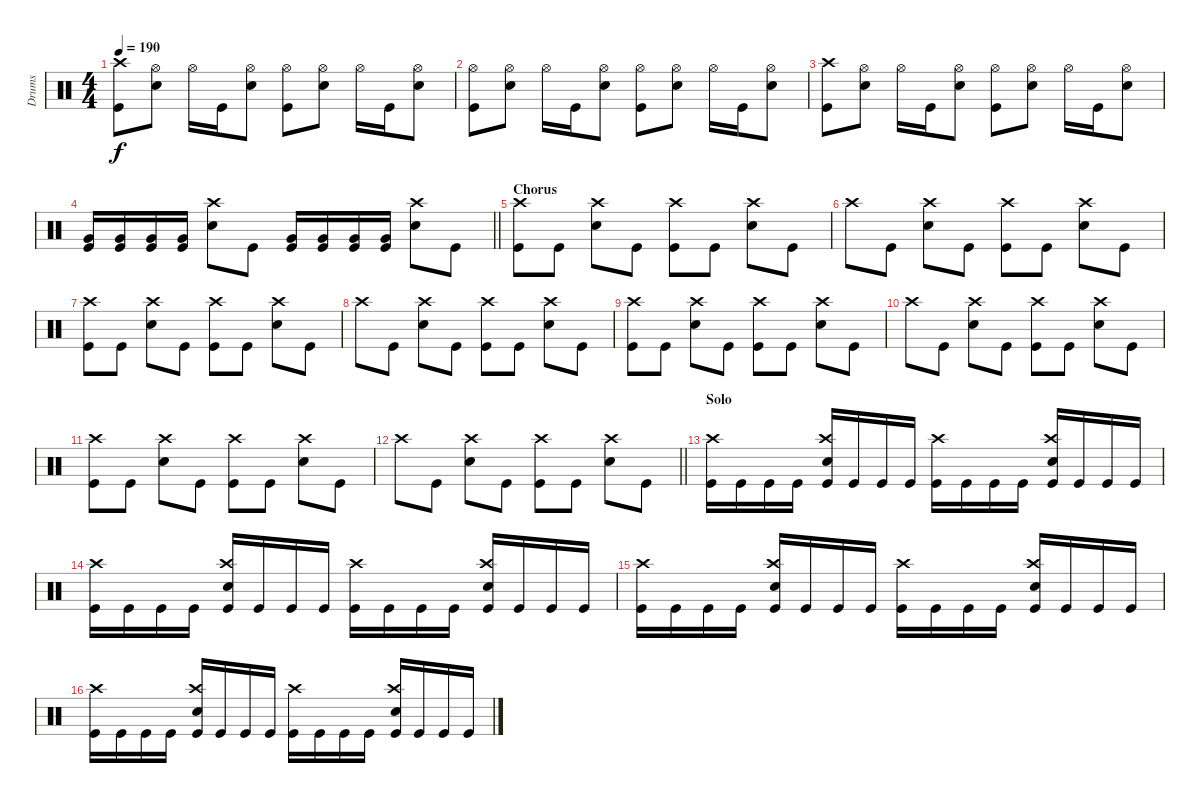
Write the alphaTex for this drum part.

\track ("Drums" "Drums") {instrument percussion}
\staff {score}
\articulation defaults
\ts (4 4)
\tempo 190
\clef neutral
\ks c
("Kick (hit)" "Crash high (hit)").8{dy f} ("Snare (hit) 2" "Hi-Hat (open)").8 "Hi-Hat (open)".16 "Kick (hit)".16 ("Snare (hit) 2" "Hi-Hat (open)").8 ("Kick (hit)" "Hi-Hat (open)").8 ("Snare (hit) 2" "Hi-Hat (open)").8 "Hi-Hat (open)".16 "Kick (hit)".16 ("Snare (hit) 2" "Hi-Hat (open)").8 |
("Kick (hit)" "Hi-Hat (open)").8 ("Snare (hit) 2" "Hi-Hat (open)").8 "Hi-Hat (open)".16 "Kick (hit)".16 ("Snare (hit) 2" "Hi-Hat (open)").8 ("Kick (hit)" "Hi-Hat (open)").8 ("Snare (hit) 2" "Hi-Hat (open)").8 "Hi-Hat (open)".16 "Kick (hit)".16 ("Snare (hit) 2" "Hi-Hat (open)").8 |
("Kick (hit)" "Crash high (hit)").8 ("Snare (hit) 2" "Hi-Hat (open)").8 "Hi-Hat (open)".16 "Kick (hit)".16 ("Snare (hit) 2" "Hi-Hat (open)").8 ("Kick (hit)" "Hi-Hat (open)").8 ("Snare (hit) 2" "Hi-Hat (open)").8 "Hi-Hat (open)".16 "Kick (hit)".16 ("Snare (hit) 2" "Hi-Hat (open)").8 |
\barLineRight lightlight
("Very Low Tom (hit)" "Kick (hit)").16 ("Very Low Tom (hit)" "Kick (hit)").16 ("Very Low Tom (hit)" "Kick (hit)").16 ("Very Low Tom (hit)" "Kick (hit)").16 ("Snare (hit) 2" "Crash high (hit)").8 "Kick (hit)".8 ("Very Low Tom (hit)" "Kick (hit)").16 ("Very Low Tom (hit)" "Kick (hit)").16 ("Very Low Tom (hit)" "Kick (hit)").16 ("Very Low Tom (hit)" "Kick (hit)").16 ("Snare (hit) 2" "Crash high (hit)").8 "Kick (hit)".8 |
\section ("" "Chorus")
("Kick (hit)" "Crash high (hit)").8 "Kick (hit)".8 ("Snare (hit) 2" "Crash high (hit)").8 "Kick (hit)".8 ("Kick (hit)" "Crash high (hit)").8 "Kick (hit)".8 ("Snare (hit) 2" "Crash high (hit)").8 "Kick (hit)".8 |
"Crash high (hit)".8 "Kick (hit)".8 ("Snare (hit) 2" "Crash high (hit)").8 "Kick (hit)".8 ("Kick (hit)" "Crash high (hit)").8 "Kick (hit)".8 ("Snare (hit) 2" "Crash high (hit)").8 "Kick (hit)".8 |
("Kick (hit)" "Crash high (hit)").8 "Kick (hit)".8 ("Snare (hit) 2" "Crash high (hit)").8 "Kick (hit)".8 ("Kick (hit)" "Crash high (hit)").8 "Kick (hit)".8 ("Snare (hit) 2" "Crash high (hit)").8 "Kick (hit)".8 |
"Crash high (hit)".8 "Kick (hit)".8 ("Snare (hit) 2" "Crash high (hit)").8 "Kick (hit)".8 ("Kick (hit)" "Crash high (hit)").8 "Kick (hit)".8 ("Snare (hit) 2" "Crash high (hit)").8 "Kick (hit)".8 |
("Kick (hit)" "Crash high (hit)").8 "Kick (hit)".8 ("Snare (hit) 2" "Crash high (hit)").8 "Kick (hit)".8 ("Kick (hit)" "Crash high (hit)").8 "Kick (hit)".8 ("Snare (hit) 2" "Crash high (hit)").8 "Kick (hit)".8 |
"Crash high (hit)".8 "Kick (hit)".8 ("Snare (hit) 2" "Crash high (hit)").8 "Kick (hit)".8 ("Kick (hit)" "Crash high (hit)").8 "Kick (hit)".8 ("Snare (hit) 2" "Crash high (hit)").8 "Kick (hit)".8 |
("Kick (hit)" "Crash high (hit)").8 "Kick (hit)".8 ("Snare (hit) 2" "Crash high (hit)").8 "Kick (hit)".8 ("Kick (hit)" "Crash high (hit)").8 "Kick (hit)".8 ("Snare (hit) 2" "Crash high (hit)").8 "Kick (hit)".8 |
\barLineRight lightlight "Crash high (hit)".8 "Kick (hit)".8
("Snare (hit) 2" "Crash high (hit)").8 "Kick (hit)".8 ("Kick (hit)" "Crash high (hit)").8 "Kick (hit)".8 ("Snare (hit) 2" "Crash high (hit)").8 "Kick (hit)".8 |
\section ("" "Solo")
("Kick (hit)" "Crash high (hit)").16 "Kick (hit)".16 "Kick (hit)".16 "Kick (hit)".16 ("Snare (hit) 2" "Kick (hit)" "Crash high (hit)").16 "Kick (hit)".16 "Kick (hit)".16 "Kick (hit)".16 ("Kick (hit)" "Crash high (hit)").16 "Kick (hit)".16 "Kick (hit)".16 "Kick (hit)".16 ("Snare (hit) 2" "Kick (hit)" "Crash high (hit)").16 "Kick (hit)".16 "Kick (hit)".16 "Kick (hit)".16 |
("Kick (hit)" "Crash high (hit)").16 "Kick (hit)".16 "Kick (hit)".16 "Kick (hit)".16 ("Snare (hit) 2" "Kick (hit)" "Crash high (hit)").16 "Kick (hit)".16 "Kick (hit)".16 "Kick (hit)".16 ("Kick (hit)" "Crash high (hit)").16 "Kick (hit)".16 "Kick (hit)".16 "Kick (hit)".16 ("Snare (hit) 2" "Kick (hit)" "Crash high (hit)").16 "Kick (hit)".16 "Kick (hit)".16 "Kick (hit)".16 |
("Kick (hit)" "Crash high (hit)").16 "Kick (hit)".16 "Kick (hit)".16 "Kick (hit)".16 ("Snare (hit) 2" "Kick (hit)" "Crash high (hit)").16 "Kick (hit)".16 "Kick (hit)".16 "Kick (hit)".16 ("Kick (hit)" "Crash high (hit)").16 "Kick (hit)".16 "Kick (hit)".16 "Kick (hit)".16 ("Snare (hit) 2" "Kick (hit)" "Crash high (hit)").16 "Kick (hit)".16 "Kick (hit)".16 "Kick (hit)".16 |
("Kick (hit)" "Crash high (hit)").16 "Kick (hit)".16 "Kick (hit)".16 "Kick (hit)".16 ("Snare (hit) 2" "Kick (hit)" "Crash high (hit)").16 "Kick (hit)".16 "Kick (hit)".16 "Kick (hit)".16 ("Kick (hit)" "Crash high (hit)").16 "Kick (hit)".16 "Kick (hit)".16 "Kick (hit)".16 ("Snare (hit) 2" "Kick (hit)" "Crash high (hit)").16 "Kick (hit)".16 "Kick (hit)".16 "Kick (hit)".16
